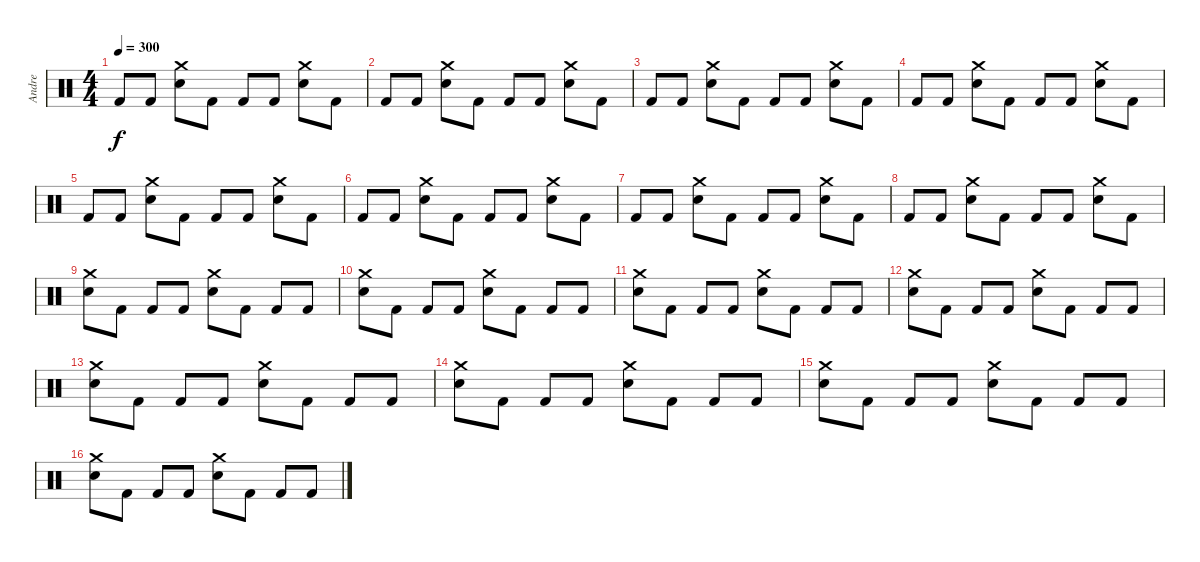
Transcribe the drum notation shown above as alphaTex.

\track ("Andre" "Andre") {instrument percussion}
\staff {score}
\articulation defaults
\ts (4 4)
\tempo 300
\clef neutral
\ks c "Kick (hit) 2".8{dy f} "Kick (hit) 2".8
("Crash medium (hit)" "Electric Snare (hit)").8 "Kick (hit) 2".8 "Kick (hit) 2".8 "Kick (hit) 2".8 ("Crash medium (hit)" "Electric Snare (hit)").8 "Kick (hit) 2".8 |
"Kick (hit) 2".8 "Kick (hit) 2".8 ("Crash medium (hit)" "Electric Snare (hit)").8 "Kick (hit) 2".8 "Kick (hit) 2".8 "Kick (hit) 2".8 ("Crash medium (hit)" "Electric Snare (hit)").8 "Kick (hit) 2".8 |
"Kick (hit) 2".8 "Kick (hit) 2".8 ("Crash medium (hit)" "Electric Snare (hit)").8 "Kick (hit) 2".8 "Kick (hit) 2".8 "Kick (hit) 2".8 ("Crash medium (hit)" "Electric Snare (hit)").8 "Kick (hit) 2".8 |
"Kick (hit) 2".8 "Kick (hit) 2".8 ("Crash medium (hit)" "Electric Snare (hit)").8 "Kick (hit) 2".8 "Kick (hit) 2".8 "Kick (hit) 2".8 ("Crash medium (hit)" "Electric Snare (hit)").8 "Kick (hit) 2".8 |
"Kick (hit) 2".8 "Kick (hit) 2".8 ("Crash medium (hit)" "Electric Snare (hit)").8 "Kick (hit) 2".8 "Kick (hit) 2".8 "Kick (hit) 2".8 ("Crash medium (hit)" "Electric Snare (hit)").8 "Kick (hit) 2".8 |
"Kick (hit) 2".8 "Kick (hit) 2".8 ("Crash medium (hit)" "Electric Snare (hit)").8 "Kick (hit) 2".8 "Kick (hit) 2".8 "Kick (hit) 2".8 ("Crash medium (hit)" "Electric Snare (hit)").8 "Kick (hit) 2".8 |
"Kick (hit) 2".8 "Kick (hit) 2".8 ("Crash medium (hit)" "Electric Snare (hit)").8 "Kick (hit) 2".8 "Kick (hit) 2".8 "Kick (hit) 2".8 ("Crash medium (hit)" "Electric Snare (hit)").8 "Kick (hit) 2".8 |
"Kick (hit) 2".8 "Kick (hit) 2".8 ("Crash medium (hit)" "Electric Snare (hit)").8 "Kick (hit) 2".8 "Kick (hit) 2".8 "Kick (hit) 2".8 ("Crash medium (hit)" "Electric Snare (hit)").8 "Kick (hit) 2".8 |
("Crash medium (hit)" "Electric Snare (hit)").8 "Kick (hit) 2".8 "Kick (hit) 2".8 "Kick (hit) 2".8 ("Crash medium (hit)" "Electric Snare (hit)").8 "Kick (hit) 2".8 "Kick (hit) 2".8 "Kick (hit) 2".8 |
("Crash medium (hit)" "Electric Snare (hit)").8 "Kick (hit) 2".8 "Kick (hit) 2".8 "Kick (hit) 2".8 ("Crash medium (hit)" "Electric Snare (hit)").8 "Kick (hit) 2".8 "Kick (hit) 2".8 "Kick (hit) 2".8 |
("Crash medium (hit)" "Electric Snare (hit)").8 "Kick (hit) 2".8 "Kick (hit) 2".8 "Kick (hit) 2".8 ("Crash medium (hit)" "Electric Snare (hit)").8 "Kick (hit) 2".8 "Kick (hit) 2".8 "Kick (hit) 2".8 |
("Crash medium (hit)" "Electric Snare (hit)").8 "Kick (hit) 2".8 "Kick (hit) 2".8 "Kick (hit) 2".8 ("Crash medium (hit)" "Electric Snare (hit)").8 "Kick (hit) 2".8 "Kick (hit) 2".8 "Kick (hit) 2".8 |
("Crash medium (hit)" "Electric Snare (hit)").8 "Kick (hit) 2".8 "Kick (hit) 2".8 "Kick (hit) 2".8 ("Crash medium (hit)" "Electric Snare (hit)").8 "Kick (hit) 2".8 "Kick (hit) 2".8 "Kick (hit) 2".8 |
("Crash medium (hit)" "Electric Snare (hit)").8 "Kick (hit) 2".8 "Kick (hit) 2".8 "Kick (hit) 2".8 ("Crash medium (hit)" "Electric Snare (hit)").8 "Kick (hit) 2".8 "Kick (hit) 2".8 "Kick (hit) 2".8 |
("Crash medium (hit)" "Electric Snare (hit)").8 "Kick (hit) 2".8 "Kick (hit) 2".8 "Kick (hit) 2".8 ("Crash medium (hit)" "Electric Snare (hit)").8 "Kick (hit) 2".8 "Kick (hit) 2".8 "Kick (hit) 2".8 |
("Crash medium (hit)" "Electric Snare (hit)").8 "Kick (hit) 2".8 "Kick (hit) 2".8 "Kick (hit) 2".8 ("Crash medium (hit)" "Electric Snare (hit)").8 "Kick (hit) 2".8 "Kick (hit) 2".8 "Kick (hit) 2".8
